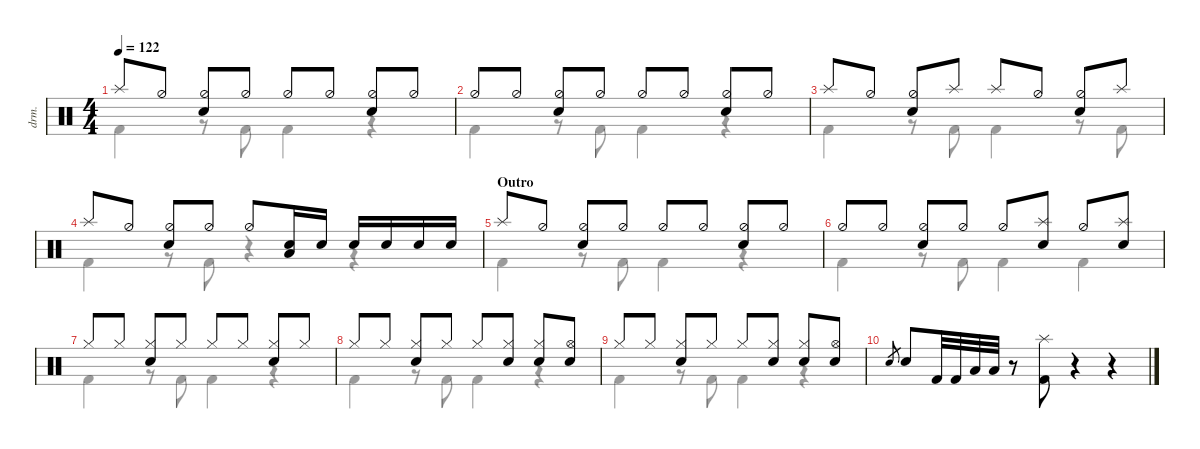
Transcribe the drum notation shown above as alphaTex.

\defaultSystemsLayout 4
\hideDynamics
\bracketExtendMode nobrackets
\track ("Drumkit" "drm.") {defaultSystemsLayout 4 instrument percussion}
\staff {score}
\articulation defaults
\voice
\ts (4 4)
\tempo 122
\clef neutral
\ks c "Splash (hit)".8{dy mf beam Up} "Hi-Hat (half)".8{beam Up}
("Hi-Hat (half)" "Snare (hit) 2").8{beam Up} "Hi-Hat (half)".8{beam Up} "Hi-Hat (half)".8{beam Up} "Hi-Hat (half)".8{beam Up} ("Hi-Hat (half)" "Snare (hit) 2").8{beam Up} "Hi-Hat (half)".8{beam Up} |
"Hi-Hat (half)".8{beam Up} "Hi-Hat (half)".8{beam Up} ("Hi-Hat (half)" "Snare (hit) 2").8{beam Up} "Hi-Hat (half)".8{beam Up} "Hi-Hat (half)".8{beam Up} "Hi-Hat (half)".8{beam Up} ("Hi-Hat (half)" "Snare (hit) 2").8{beam Up} "Hi-Hat (half)".8{beam Up} |
"Splash (hit)".8{beam Up} "Hi-Hat (half)".8{beam Up} ("Hi-Hat (half)" "Snare (hit) 2").8{beam Up} "Splash (hit)".8{beam Up} "Splash (hit)".8{beam Up} "Hi-Hat (half)".8{beam Up} ("Hi-Hat (half)" "Snare (hit) 2").8{beam Up} "Splash (hit)".8{beam Up} |
"Splash (hit)".8{beam Up} "Hi-Hat (half)".8{beam Up} ("Hi-Hat (half)" "Snare (hit) 2").8{beam Up} "Hi-Hat (half)".8{beam Up} "Hi-Hat (half)".8{beam Up} ("Snare (hit) 2" "Low Tom (hit)").16{beam Up} "Snare (hit) 2".16{beam Up} "Snare (hit) 2".16{beam Up} "Snare (hit) 2".16{beam Up} "Snare (hit) 2".16{beam Up} "Snare (hit) 2".16{beam Up} |
\section ("" "Outro")
"Splash (hit)".8{beam Up} "Hi-Hat (half)".8{beam Up} ("Hi-Hat (half)" "Snare (hit) 2").8{beam Up} "Hi-Hat (half)".8{beam Up} "Hi-Hat (half)".8{beam Up} "Hi-Hat (half)".8{beam Up} ("Hi-Hat (half)" "Snare (hit) 2").8{beam Up} "Hi-Hat (half)".8{beam Up} |
"Hi-Hat (half)".8{beam Up} "Hi-Hat (half)".8{beam Up} ("Hi-Hat (half)" "Snare (hit) 2").8{beam Up} "Hi-Hat (half)".8{beam Up} "Hi-Hat (half)".8{beam Up} ("Snare (hit) 2" "Splash (hit)").8{beam Up} "Hi-Hat (half)".8{beam Up} ("Snare (hit) 2" "Splash (hit)").8{beam Up} |
"Hi-Hat (closed)".8{beam Up} "Hi-Hat (closed)".8{beam Up} ("Hi-Hat (closed)" "Snare (hit) 2").8{beam Up} "Hi-Hat (closed)".8{beam Up} "Hi-Hat (closed)".8{beam Up} "Hi-Hat (closed)".8{beam Up} ("Hi-Hat (closed)" "Snare (hit) 2").8{beam Up} "Hi-Hat (closed)".8{beam Up} |
"Hi-Hat (closed)".8{beam Up} "Hi-Hat (closed)".8{beam Up} ("Hi-Hat (closed)" "Snare (hit) 2").8{beam Up} "Hi-Hat (closed)".8{beam Up} "Hi-Hat (closed)".8{beam Up} ("Hi-Hat (closed)" "Snare (hit) 2").8{beam Up} ("Hi-Hat (closed)" "Snare (hit) 2").8{beam Up} ("Hi-Hat (open)" "Snare (hit) 2").8{beam Up} |
"Hi-Hat (closed)".8{beam Up} "Hi-Hat (closed)".8{beam Up} ("Hi-Hat (closed)" "Snare (hit) 2").8{beam Up} "Hi-Hat (closed)".8{beam Up} "Hi-Hat (closed)".8{beam Up} ("Hi-Hat (closed)" "Snare (hit) 2").8{beam Up} ("Hi-Hat (closed)" "Snare (hit) 2").8{beam Up} ("Hi-Hat (open)" "Snare (hit) 2").8{beam Up} |
"Snare (hit) 2".8{gr beam Up} "Snare (hit) 2".8{beam Up} "Kick (hit) 2".32{beam Up} "Kick (hit) 2".32{beam Up} "Low Tom (hit)".32{beam Up} "Low Tom (hit)".32{beam Up} r.8{beam Down} ("Kick (hit) 2" "Splash (hit)").8{beam Down} r.4{beam Down} r.4{beam Down}
\voice
\clef neutral
\ottava regular
\simile none
\ks c
|
|
|
|
|
|
|
|
|
\voice
\clef neutral
\ottava regular
\simile none
\ks c "Kick (hit) 2".4{dy mf beam Down}
r.8{beam Down} "Kick (hit) 2".8{beam Down} "Kick (hit) 2".4{beam Down} r.4{beam Down} |
"Kick (hit) 2".4{beam Down} r.8{beam Down} "Kick (hit) 2".8{beam Down} "Kick (hit) 2".4{beam Down} r.4{beam Down} |
"Kick (hit) 2".4{beam Down} r.8{beam Down} "Kick (hit) 2".8{beam Down} "Kick (hit) 2".4{beam Down} r.8{beam Down} "Kick (hit) 2".8{beam Down} |
"Kick (hit) 2".4{beam Down} r.8{beam Down} "Kick (hit) 2".8{beam Down} r.4{beam Down} r.4{beam Down} |
"Kick (hit) 2".4{beam Down} r.8{beam Down} "Kick (hit) 2".8{beam Down} "Kick (hit) 2".4{beam Down} r.4{beam Down} |
"Kick (hit) 2".4{beam Down} r.8{beam Down} "Kick (hit) 2".8{beam Down} "Kick (hit) 2".4{beam Down} "Kick (hit) 2".4{beam Down} |
"Kick (hit) 2".4{beam Down} r.8{beam Down} "Kick (hit) 2".8{beam Down} "Kick (hit) 2".4{beam Down} r.4{beam Down} |
"Kick (hit) 2".4{beam Down} r.8{beam Down} "Kick (hit) 2".8{beam Down} "Kick (hit) 2".4{beam Down} r.4{beam Down} |
"Kick (hit) 2".4{beam Down} r.8{beam Down} "Kick (hit) 2".8{beam Down} "Kick (hit) 2".4{beam Down} r.4{beam Down} |
